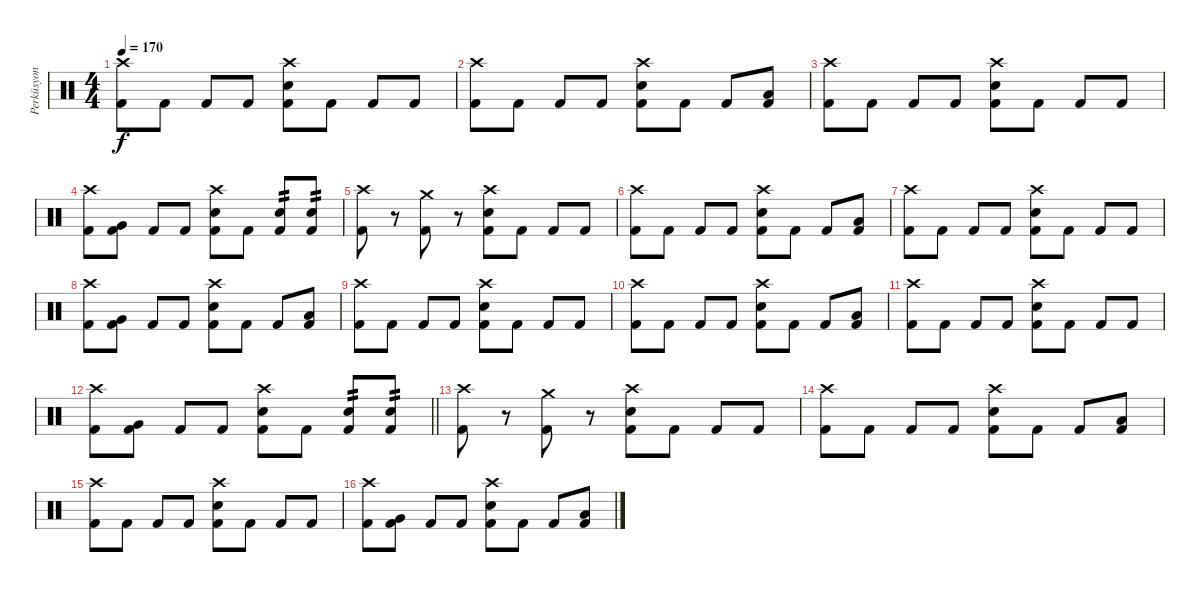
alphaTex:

\track ("Perküsyon" "Perküsyon") {instrument percussion}
\staff {score}
\articulation defaults
\ts (4 4)
\tempo 170
\clef neutral
\ks c
("Crash high (hit)" "Kick (hit) 2").8{dy f} "Kick (hit) 2".8 "Kick (hit) 2".8 "Kick (hit) 2".8 ("Crash high (hit)" "Snare (hit) 2" "Kick (hit) 2").8 "Kick (hit) 2".8 "Kick (hit) 2".8 "Kick (hit) 2".8 |
("Crash high (hit)" "Kick (hit) 2").8 "Kick (hit) 2".8 "Kick (hit) 2".8 "Kick (hit) 2".8 ("Crash high (hit)" "Snare (hit) 2" "Kick (hit) 2").8 "Kick (hit) 2".8 "Kick (hit) 2".8 ("Low Floor Tom (hit)" "Kick (hit) 2").8 |
("Crash high (hit)" "Kick (hit) 2").8 "Kick (hit) 2".8 "Kick (hit) 2".8 "Kick (hit) 2".8 ("Crash high (hit)" "Snare (hit) 2" "Kick (hit) 2").8 "Kick (hit) 2".8 "Kick (hit) 2".8 "Kick (hit) 2".8 |
("Crash high (hit)" "Kick (hit) 2").8 ("Very Low Tom (hit)" "Kick (hit) 2").8 "Kick (hit) 2".8 "Kick (hit) 2".8 ("Crash high (hit)" "Snare (hit) 2" "Kick (hit) 2").8 "Kick (hit) 2".8 ("Snare (hit) 2" "Kick (hit) 2").8{tp 2} ("Snare (hit) 2" "Kick (hit) 2").8{tp 2} |
("Crash high (hit)" "Kick (hit) 2").8 r.8 ("Crash medium (hit)" "Kick (hit) 2").8 r.8 ("Crash high (hit)" "Snare (hit) 2" "Kick (hit) 2").8 "Kick (hit) 2".8 "Kick (hit) 2".8 "Kick (hit) 2".8 |
("Crash high (hit)" "Kick (hit) 2").8 "Kick (hit) 2".8 "Kick (hit) 2".8 "Kick (hit) 2".8 ("Crash high (hit)" "Snare (hit) 2" "Kick (hit) 2").8 "Kick (hit) 2".8 "Kick (hit) 2".8 ("Low Floor Tom (hit)" "Kick (hit) 2").8 |
("Crash high (hit)" "Kick (hit) 2").8 "Kick (hit) 2".8 "Kick (hit) 2".8 "Kick (hit) 2".8 ("Crash high (hit)" "Snare (hit) 2" "Kick (hit) 2").8 "Kick (hit) 2".8 "Kick (hit) 2".8 "Kick (hit) 2".8 |
("Crash high (hit)" "Kick (hit) 2").8 ("Very Low Tom (hit)" "Kick (hit) 2").8 "Kick (hit) 2".8 "Kick (hit) 2".8 ("Crash high (hit)" "Snare (hit) 2" "Kick (hit) 2").8 "Kick (hit) 2".8 "Kick (hit) 2".8 ("Low Tom (hit)" "Kick (hit) 2").8 |
("Crash high (hit)" "Kick (hit) 2").8 "Kick (hit) 2".8 "Kick (hit) 2".8 "Kick (hit) 2".8 ("Crash high (hit)" "Snare (hit) 2" "Kick (hit) 2").8 "Kick (hit) 2".8 "Kick (hit) 2".8 "Kick (hit) 2".8 |
("Crash high (hit)" "Kick (hit) 2").8 "Kick (hit) 2".8 "Kick (hit) 2".8 "Kick (hit) 2".8 ("Crash high (hit)" "Snare (hit) 2" "Kick (hit) 2").8 "Kick (hit) 2".8 "Kick (hit) 2".8 ("Low Floor Tom (hit)" "Kick (hit) 2").8 |
("Crash high (hit)" "Kick (hit) 2").8 "Kick (hit) 2".8 "Kick (hit) 2".8 "Kick (hit) 2".8 ("Crash high (hit)" "Snare (hit) 2" "Kick (hit) 2").8 "Kick (hit) 2".8 "Kick (hit) 2".8 "Kick (hit) 2".8 |
\barLineRight lightlight
("Crash high (hit)" "Kick (hit) 2").8 ("Very Low Tom (hit)" "Kick (hit) 2").8 "Kick (hit) 2".8 "Kick (hit) 2".8 ("Crash high (hit)" "Snare (hit) 2" "Kick (hit) 2").8 "Kick (hit) 2".8 ("Snare (hit) 2" "Kick (hit) 2").8{tp 2} ("Snare (hit) 2" "Kick (hit) 2").8{tp 2} |
\section ("" "")
("Crash high (hit)" "Kick (hit) 2").8 r.8 ("Crash medium (hit)" "Kick (hit) 2").8 r.8 ("Crash high (hit)" "Snare (hit) 2" "Kick (hit) 2").8 "Kick (hit) 2".8 "Kick (hit) 2".8 "Kick (hit) 2".8 |
("Crash high (hit)" "Kick (hit) 2").8 "Kick (hit) 2".8 "Kick (hit) 2".8 "Kick (hit) 2".8 ("Crash high (hit)" "Snare (hit) 2" "Kick (hit) 2").8 "Kick (hit) 2".8 "Kick (hit) 2".8 ("Low Floor Tom (hit)" "Kick (hit) 2").8 |
("Crash high (hit)" "Kick (hit) 2").8 "Kick (hit) 2".8 "Kick (hit) 2".8 "Kick (hit) 2".8 ("Crash high (hit)" "Snare (hit) 2" "Kick (hit) 2").8 "Kick (hit) 2".8 "Kick (hit) 2".8 "Kick (hit) 2".8 |
("Crash high (hit)" "Kick (hit) 2").8 ("Very Low Tom (hit)" "Kick (hit) 2").8 "Kick (hit) 2".8 "Kick (hit) 2".8 ("Crash high (hit)" "Snare (hit) 2" "Kick (hit) 2").8 "Kick (hit) 2".8 "Kick (hit) 2".8 ("Low Tom (hit)" "Kick (hit) 2").8
